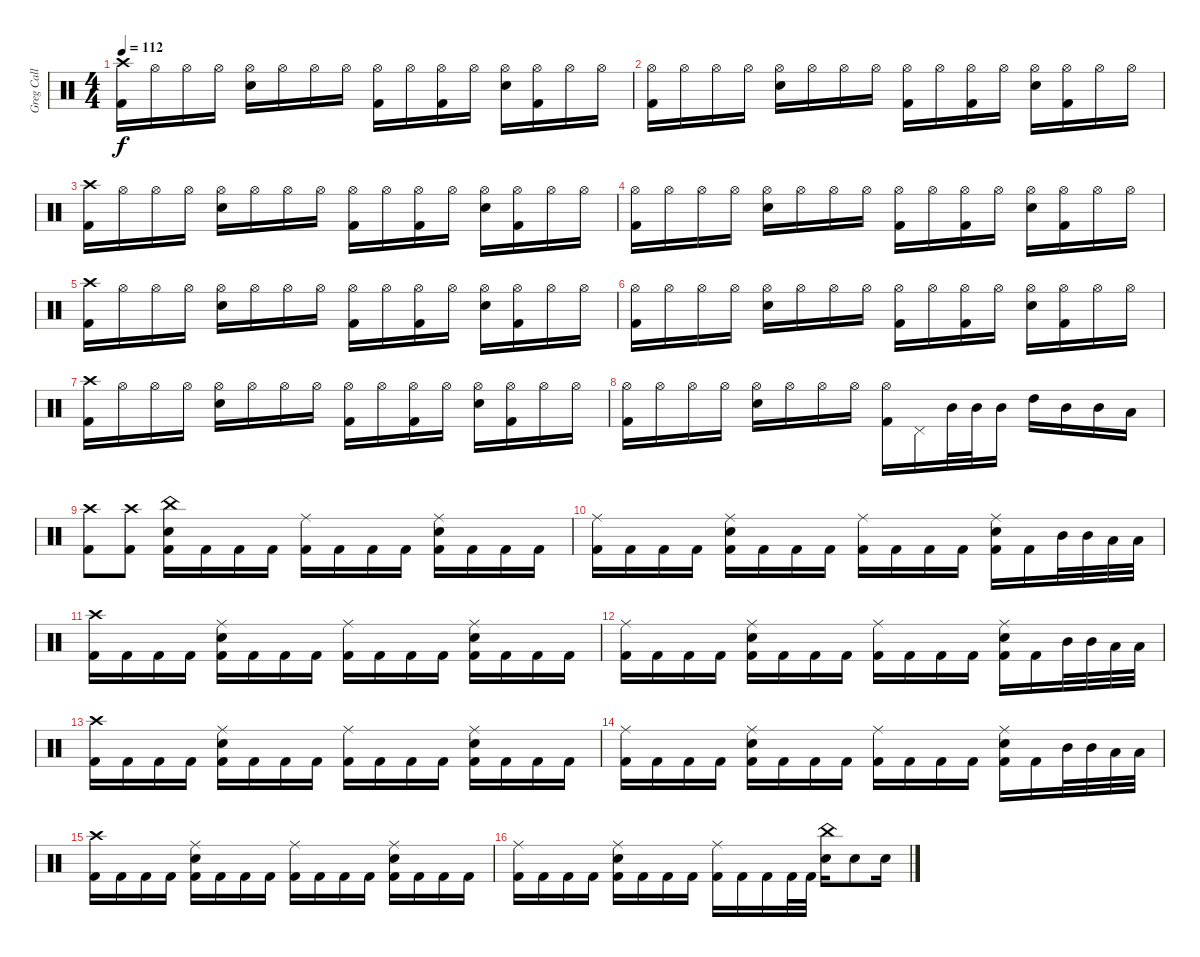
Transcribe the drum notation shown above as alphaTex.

\track ("Greg Call (Drums)" "Greg Call ") {instrument percussion}
\staff {score}
\articulation defaults
\ts (4 4)
\tempo 112
\clef neutral
\ks c
("Crash high (hit)" "Kick (hit) 2").16{dy f} "Hi-Hat (open)".16 "Hi-Hat (open)".16 "Hi-Hat (open)".16 ("Hi-Hat (open)" "Snare (hit) 2").16 "Hi-Hat (open)".16 "Hi-Hat (open)".16 "Hi-Hat (open)".16 ("Hi-Hat (open)" "Kick (hit) 2").16 "Hi-Hat (open)".16 ("Hi-Hat (open)" "Kick (hit) 2").16 "Hi-Hat (open)".16 ("Hi-Hat (open)" "Snare (hit) 2").16 ("Hi-Hat (open)" "Kick (hit) 2").16 "Hi-Hat (open)".16 "Hi-Hat (open)".16 |
("Hi-Hat (open)" "Kick (hit) 2").16 "Hi-Hat (open)".16 "Hi-Hat (open)".16 "Hi-Hat (open)".16 ("Hi-Hat (open)" "Snare (hit) 2").16 "Hi-Hat (open)".16 "Hi-Hat (open)".16 "Hi-Hat (open)".16 ("Hi-Hat (open)" "Kick (hit) 2").16 "Hi-Hat (open)".16 ("Hi-Hat (open)" "Kick (hit) 2").16 "Hi-Hat (open)".16 ("Hi-Hat (open)" "Snare (hit) 2").16 ("Hi-Hat (open)" "Kick (hit) 2").16 "Hi-Hat (open)".16 "Hi-Hat (open)".16 |
("Crash high (hit)" "Kick (hit) 2").16 "Hi-Hat (open)".16 "Hi-Hat (open)".16 "Hi-Hat (open)".16 ("Hi-Hat (open)" "Snare (hit) 2").16 "Hi-Hat (open)".16 "Hi-Hat (open)".16 "Hi-Hat (open)".16 ("Hi-Hat (open)" "Kick (hit) 2").16 "Hi-Hat (open)".16 ("Hi-Hat (open)" "Kick (hit) 2").16 "Hi-Hat (open)".16 ("Hi-Hat (open)" "Snare (hit) 2").16 ("Hi-Hat (open)" "Kick (hit) 2").16 "Hi-Hat (open)".16 "Hi-Hat (open)".16 |
("Hi-Hat (open)" "Kick (hit) 2").16 "Hi-Hat (open)".16 "Hi-Hat (open)".16 "Hi-Hat (open)".16 ("Hi-Hat (open)" "Snare (hit) 2").16 "Hi-Hat (open)".16 "Hi-Hat (open)".16 "Hi-Hat (open)".16 ("Hi-Hat (open)" "Kick (hit) 2").16 "Hi-Hat (open)".16 ("Hi-Hat (open)" "Kick (hit) 2").16 "Hi-Hat (open)".16 ("Hi-Hat (open)" "Snare (hit) 2").16 ("Hi-Hat (open)" "Kick (hit) 2").16 "Hi-Hat (open)".16 "Hi-Hat (open)".16 |
("Crash high (hit)" "Kick (hit) 2").16 "Hi-Hat (open)".16 "Hi-Hat (open)".16 "Hi-Hat (open)".16 ("Hi-Hat (open)" "Snare (hit) 2").16 "Hi-Hat (open)".16 "Hi-Hat (open)".16 "Hi-Hat (open)".16 ("Hi-Hat (open)" "Kick (hit) 2").16 "Hi-Hat (open)".16 ("Hi-Hat (open)" "Kick (hit) 2").16 "Hi-Hat (open)".16 ("Hi-Hat (open)" "Snare (hit) 2").16 ("Hi-Hat (open)" "Kick (hit) 2").16 "Hi-Hat (open)".16 "Hi-Hat (open)".16 |
("Hi-Hat (open)" "Kick (hit) 2").16 "Hi-Hat (open)".16 "Hi-Hat (open)".16 "Hi-Hat (open)".16 ("Hi-Hat (open)" "Snare (hit) 2").16 "Hi-Hat (open)".16 "Hi-Hat (open)".16 "Hi-Hat (open)".16 ("Hi-Hat (open)" "Kick (hit) 2").16 "Hi-Hat (open)".16 ("Hi-Hat (open)" "Kick (hit) 2").16 "Hi-Hat (open)".16 ("Hi-Hat (open)" "Snare (hit) 2").16 ("Hi-Hat (open)" "Kick (hit) 2").16 "Hi-Hat (open)".16 "Hi-Hat (open)".16 |
("Crash high (hit)" "Kick (hit) 2").16 "Hi-Hat (open)".16 "Hi-Hat (open)".16 "Hi-Hat (open)".16 ("Hi-Hat (open)" "Snare (hit) 2").16 "Hi-Hat (open)".16 "Hi-Hat (open)".16 "Hi-Hat (open)".16 ("Hi-Hat (open)" "Kick (hit) 2").16 "Hi-Hat (open)".16 ("Hi-Hat (open)" "Kick (hit) 2").16 "Hi-Hat (open)".16 ("Hi-Hat (open)" "Snare (hit) 2").16 ("Hi-Hat (open)" "Kick (hit) 2").16 "Hi-Hat (open)".16 "Hi-Hat (open)".16 |
("Hi-Hat (open)" "Kick (hit) 2").16 "Hi-Hat (open)".16 "Hi-Hat (open)".16 "Hi-Hat (open)".16 ("Hi-Hat (open)" "Snare (hit) 2").16 "Hi-Hat (open)".16 "Hi-Hat (open)".16 "Hi-Hat (open)".16 ("Hi-Hat (open)" "Kick (hit) 2").16 "Pedal Hi-Hat (hit)".16 "Mid Tom (hit)".32 "Mid Tom (hit)".32 "Mid Tom (hit)".16 "High Tom (hit)".16 "Mid Tom (hit)".16 "Mid Tom (hit)".16 "Low Tom (hit)".16 |
("Crash high (hit)" "Kick (hit) 2").8 ("Crash high (hit)" "Kick (hit) 2").8 ("China (hit)" "Snare (hit) 2" "Kick (hit) 2").16 "Kick (hit) 2".16 "Kick (hit) 2".16 "Kick (hit) 2".16 ("Ride (middle)" "Kick (hit) 2").16 "Kick (hit) 2".16 "Kick (hit) 2".16 "Kick (hit) 2".16 ("Ride (middle)" "Snare (hit) 2" "Kick (hit) 2").16 "Kick (hit) 2".16 "Kick (hit) 2".16 "Kick (hit) 2".16 |
("Ride (middle)" "Kick (hit) 2").16 "Kick (hit) 2".16 "Kick (hit) 2".16 "Kick (hit) 2".16 ("Ride (middle)" "Snare (hit) 2" "Kick (hit) 2").16 "Kick (hit) 2".16 "Kick (hit) 2".16 "Kick (hit) 2".16 ("Ride (middle)" "Kick (hit) 2").16 "Kick (hit) 2".16 "Kick (hit) 2".16 "Kick (hit) 2".16 ("Ride (middle)" "Snare (hit) 2" "Kick (hit) 2").16 "Kick (hit) 2".16 "Mid Tom (hit)".32 "Mid Tom (hit)".32 "Low Floor Tom (hit)".32 "Low Floor Tom (hit)".32 |
("Crash high (hit)" "Kick (hit) 2").16 "Kick (hit) 2".16 "Kick (hit) 2".16 "Kick (hit) 2".16 ("Ride (middle)" "Snare (hit) 2" "Kick (hit) 2").16 "Kick (hit) 2".16 "Kick (hit) 2".16 "Kick (hit) 2".16 ("Ride (middle)" "Kick (hit) 2").16 "Kick (hit) 2".16 "Kick (hit) 2".16 "Kick (hit) 2".16 ("Ride (middle)" "Snare (hit) 2" "Kick (hit) 2").16 "Kick (hit) 2".16 "Kick (hit) 2".16 "Kick (hit) 2".16 |
("Ride (middle)" "Kick (hit) 2").16 "Kick (hit) 2".16 "Kick (hit) 2".16 "Kick (hit) 2".16 ("Ride (middle)" "Snare (hit) 2" "Kick (hit) 2").16 "Kick (hit) 2".16 "Kick (hit) 2".16 "Kick (hit) 2".16 ("Ride (middle)" "Kick (hit) 2").16 "Kick (hit) 2".16 "Kick (hit) 2".16 "Kick (hit) 2".16 ("Ride (middle)" "Snare (hit) 2" "Kick (hit) 2").16 "Kick (hit) 2".16 "Mid Tom (hit)".32 "Mid Tom (hit)".32 "Low Floor Tom (hit)".32 "Low Floor Tom (hit)".32 |
("Crash high (hit)" "Kick (hit) 2").16 "Kick (hit) 2".16 "Kick (hit) 2".16 "Kick (hit) 2".16 ("Ride (middle)" "Snare (hit) 2" "Kick (hit) 2").16 "Kick (hit) 2".16 "Kick (hit) 2".16 "Kick (hit) 2".16 ("Ride (middle)" "Kick (hit) 2").16 "Kick (hit) 2".16 "Kick (hit) 2".16 "Kick (hit) 2".16 ("Ride (middle)" "Snare (hit) 2" "Kick (hit) 2").16 "Kick (hit) 2".16 "Kick (hit) 2".16 "Kick (hit) 2".16 |
("Ride (middle)" "Kick (hit) 2").16 "Kick (hit) 2".16 "Kick (hit) 2".16 "Kick (hit) 2".16 ("Ride (middle)" "Snare (hit) 2" "Kick (hit) 2").16 "Kick (hit) 2".16 "Kick (hit) 2".16 "Kick (hit) 2".16 ("Ride (middle)" "Kick (hit) 2").16 "Kick (hit) 2".16 "Kick (hit) 2".16 "Kick (hit) 2".16 ("Ride (middle)" "Snare (hit) 2" "Kick (hit) 2").16 "Kick (hit) 2".16 "Mid Tom (hit)".32 "Mid Tom (hit)".32 "Low Floor Tom (hit)".32 "Low Floor Tom (hit)".32 |
("Crash high (hit)" "Kick (hit) 2").16 "Kick (hit) 2".16 "Kick (hit) 2".16 "Kick (hit) 2".16 ("Ride (middle)" "Snare (hit) 2" "Kick (hit) 2").16 "Kick (hit) 2".16 "Kick (hit) 2".16 "Kick (hit) 2".16 ("Ride (middle)" "Kick (hit) 2").16 "Kick (hit) 2".16 "Kick (hit) 2".16 "Kick (hit) 2".16 ("Ride (middle)" "Snare (hit) 2" "Kick (hit) 2").16 "Kick (hit) 2".16 "Kick (hit) 2".16 "Kick (hit) 2".16 |
("Ride (middle)" "Kick (hit) 2").16 "Kick (hit) 2".16 "Kick (hit) 2".16 "Kick (hit) 2".16 ("Ride (middle)" "Snare (hit) 2" "Kick (hit) 2").16 "Kick (hit) 2".16 "Kick (hit) 2".16 "Kick (hit) 2".16 ("Ride (middle)" "Kick (hit) 2").16 "Kick (hit) 2".16 "Kick (hit) 2".16 "Kick (hit) 2".32 "Kick (hit) 2".32 ("China (hit)" "Snare (hit) 2").16 "Snare (hit) 2".8 "Snare (hit) 2".16
